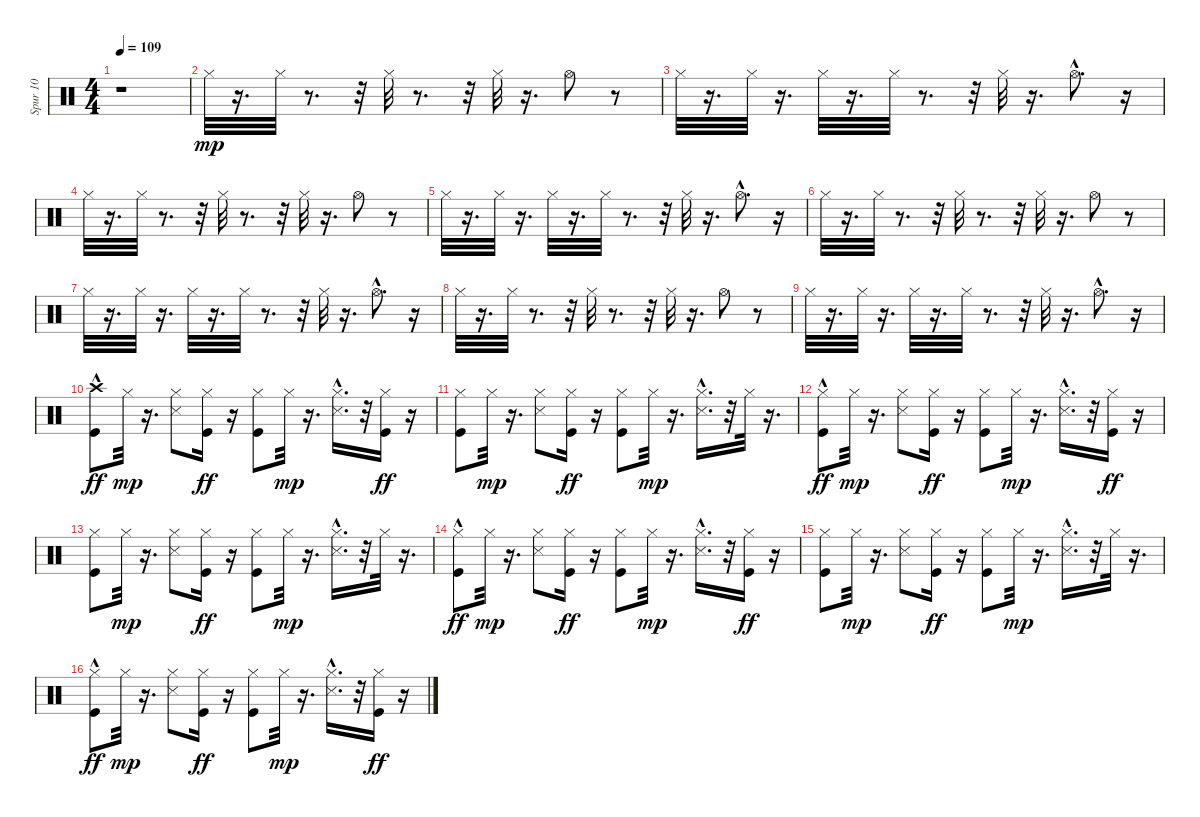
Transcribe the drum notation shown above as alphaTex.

\track ("Spur 10" "Spur 10") {instrument percussion}
\staff {score}
\articulation defaults
\ts (4 4)
\tempo 109
\clef neutral
\ks c
r.1{dy mp} |
"Hi-Hat (closed)".32 r.16{d} "Hi-Hat (closed)".32 r.8{d} r.32 "Hi-Hat (closed)".32 r.8{d} r.32 "Hi-Hat (closed)".32 r.16{d} "Hi-Hat (open)".8 r.8 |
"Hi-Hat (closed)".32 r.16{d} "Hi-Hat (closed)".32 r.16{d} "Hi-Hat (closed)".32 r.16{d} "Hi-Hat (closed)".32 r.8{d} r.32 "Hi-Hat (closed)".32 r.16{d} "Hi-Hat (open)"{hac}.8{d} r.16 |
"Hi-Hat (closed)".32 r.16{d} "Hi-Hat (closed)".32 r.8{d} r.32 "Hi-Hat (closed)".32 r.8{d} r.32 "Hi-Hat (closed)".32 r.16{d} "Hi-Hat (open)".8 r.8 |
"Hi-Hat (closed)".32 r.16{d} "Hi-Hat (closed)".32 r.16{d} "Hi-Hat (closed)".32 r.16{d} "Hi-Hat (closed)".32 r.8{d} r.32 "Hi-Hat (closed)".32 r.16{d} "Hi-Hat (open)"{hac}.8{d} r.16 |
"Hi-Hat (closed)".32 r.16{d} "Hi-Hat (closed)".32 r.8{d} r.32 "Hi-Hat (closed)".32 r.8{d} r.32 "Hi-Hat (closed)".32 r.16{d} "Hi-Hat (open)".8 r.8 |
"Hi-Hat (closed)".32 r.16{d} "Hi-Hat (closed)".32 r.16{d} "Hi-Hat (closed)".32 r.16{d} "Hi-Hat (closed)".32 r.8{d} r.32 "Hi-Hat (closed)".32 r.16{d} "Hi-Hat (open)"{hac}.8{d} r.16 |
"Hi-Hat (closed)".32 r.16{d} "Hi-Hat (closed)".32 r.8{d} r.32 "Hi-Hat (closed)".32 r.8{d} r.32 "Hi-Hat (closed)".32 r.16{d} "Hi-Hat (open)".8 r.8 |
"Hi-Hat (closed)".32 r.16{d} "Hi-Hat (closed)".32 r.16{d} "Hi-Hat (closed)".32 r.16{d} "Hi-Hat (closed)".32 r.8{d} r.32 "Hi-Hat (closed)".32 r.16{d} "Hi-Hat (open)"{hac}.8{d} r.16 |
("Crash high (hit)" "Kick (hit)"{hac}).8{dy ff} "Hi-Hat (closed)".32{dy mp} r.16{d} ("Hi-Hat (closed)" "Snare (side stick) 3").8 ("Hi-Hat (closed)" "Kick (hit)").16{dy ff} r.16 ("Hi-Hat (closed)" "Kick (hit)").8 "Hi-Hat (closed)".32{dy mp} r.16{d} ("Hi-Hat (closed)" "Snare (side stick) 3"{hac}).16{d} r.32 ("Hi-Hat (closed)" "Kick (hit)").16{dy ff} r.16 |
("Hi-Hat (closed)" "Kick (hit)").8 "Hi-Hat (closed)".32{dy mp} r.16{d} ("Hi-Hat (closed)" "Snare (side stick) 3").8 ("Hi-Hat (closed)" "Kick (hit)").16{dy ff} r.16 ("Hi-Hat (closed)" "Kick (hit)").8 "Hi-Hat (closed)".32{dy mp} r.16{d} ("Hi-Hat (closed)" "Snare (side stick) 3"{hac}).16{d} r.32 "Hi-Hat (closed)".32 r.16{d} |
("Hi-Hat (closed)" "Kick (hit)"{hac}).8{dy ff} "Hi-Hat (closed)".32{dy mp} r.16{d} ("Hi-Hat (closed)" "Snare (side stick) 3").8 ("Hi-Hat (closed)" "Kick (hit)").16{dy ff} r.16 ("Hi-Hat (closed)" "Kick (hit)").8 "Hi-Hat (closed)".32{dy mp} r.16{d} ("Hi-Hat (closed)" "Snare (side stick) 3"{hac}).16{d} r.32 ("Hi-Hat (closed)" "Kick (hit)").16{dy ff} r.16 |
("Hi-Hat (closed)" "Kick (hit)").8 "Hi-Hat (closed)".32{dy mp} r.16{d} ("Hi-Hat (closed)" "Snare (side stick) 3").8 ("Hi-Hat (closed)" "Kick (hit)").16{dy ff} r.16 ("Hi-Hat (closed)" "Kick (hit)").8 "Hi-Hat (closed)".32{dy mp} r.16{d} ("Hi-Hat (closed)" "Snare (side stick) 3"{hac}).16{d} r.32 "Hi-Hat (closed)".32 r.16{d} |
("Hi-Hat (closed)" "Kick (hit)"{hac}).8{dy ff} "Hi-Hat (closed)".32{dy mp} r.16{d} ("Hi-Hat (closed)" "Snare (side stick) 3").8 ("Hi-Hat (closed)" "Kick (hit)").16{dy ff} r.16 ("Hi-Hat (closed)" "Kick (hit)").8 "Hi-Hat (closed)".32{dy mp} r.16{d} ("Hi-Hat (closed)" "Snare (side stick) 3"{hac}).16{d} r.32 ("Hi-Hat (closed)" "Kick (hit)").16{dy ff} r.16 |
("Hi-Hat (closed)" "Kick (hit)").8 "Hi-Hat (closed)".32{dy mp} r.16{d} ("Hi-Hat (closed)" "Snare (side stick) 3").8 ("Hi-Hat (closed)" "Kick (hit)").16{dy ff} r.16 ("Hi-Hat (closed)" "Kick (hit)").8 "Hi-Hat (closed)".32{dy mp} r.16{d} ("Hi-Hat (closed)" "Snare (side stick) 3"{hac}).16{d} r.32 "Hi-Hat (closed)".32 r.16{d} |
("Hi-Hat (closed)" "Kick (hit)"{hac}).8{dy ff} "Hi-Hat (closed)".32{dy mp} r.16{d} ("Hi-Hat (closed)" "Snare (side stick) 3").8 ("Hi-Hat (closed)" "Kick (hit)").16{dy ff} r.16 ("Hi-Hat (closed)" "Kick (hit)").8 "Hi-Hat (closed)".32{dy mp} r.16{d} ("Hi-Hat (closed)" "Snare (side stick) 3"{hac}).16{d} r.32 ("Hi-Hat (closed)" "Kick (hit)").16{dy ff} r.16
